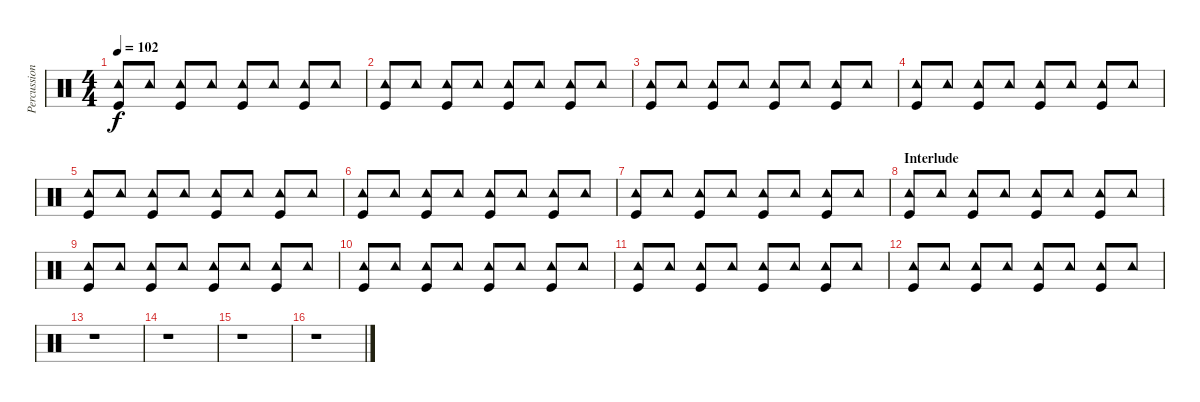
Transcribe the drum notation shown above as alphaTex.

\track ("Percussion" "Percussion") {instrument percussion}
\staff {score}
\articulation defaults
\ts (4 4)
\tempo 102
\clef neutral
\ks c
("Tambourine (hit)" "Kick (hit)").8{dy f} "Tambourine (hit)".8 ("Tambourine (hit)" "Kick (hit)").8 "Tambourine (hit)".8 ("Tambourine (hit)" "Kick (hit)").8 "Tambourine (hit)".8 ("Tambourine (hit)" "Kick (hit)").8 "Tambourine (hit)".8 |
("Tambourine (hit)" "Kick (hit)").8 "Tambourine (hit)".8 ("Tambourine (hit)" "Kick (hit)").8 "Tambourine (hit)".8 ("Tambourine (hit)" "Kick (hit)").8 "Tambourine (hit)".8 ("Tambourine (hit)" "Kick (hit)").8 "Tambourine (hit)".8 |
("Tambourine (hit)" "Kick (hit)").8 "Tambourine (hit)".8 ("Tambourine (hit)" "Kick (hit)").8 "Tambourine (hit)".8 ("Tambourine (hit)" "Kick (hit)").8 "Tambourine (hit)".8 ("Tambourine (hit)" "Kick (hit)").8 "Tambourine (hit)".8 |
("Tambourine (hit)" "Kick (hit)").8 "Tambourine (hit)".8 ("Tambourine (hit)" "Kick (hit)").8 "Tambourine (hit)".8 ("Tambourine (hit)" "Kick (hit)").8 "Tambourine (hit)".8 ("Tambourine (hit)" "Kick (hit)").8 "Tambourine (hit)".8 |
("Tambourine (hit)" "Kick (hit)").8 "Tambourine (hit)".8 ("Tambourine (hit)" "Kick (hit)").8 "Tambourine (hit)".8 ("Tambourine (hit)" "Kick (hit)").8 "Tambourine (hit)".8 ("Tambourine (hit)" "Kick (hit)").8 "Tambourine (hit)".8 |
("Tambourine (hit)" "Kick (hit)").8 "Tambourine (hit)".8 ("Tambourine (hit)" "Kick (hit)").8 "Tambourine (hit)".8 ("Tambourine (hit)" "Kick (hit)").8 "Tambourine (hit)".8 ("Tambourine (hit)" "Kick (hit)").8 "Tambourine (hit)".8 |
("Tambourine (hit)" "Kick (hit)").8 "Tambourine (hit)".8 ("Tambourine (hit)" "Kick (hit)").8 "Tambourine (hit)".8 ("Tambourine (hit)" "Kick (hit)").8 "Tambourine (hit)".8 ("Tambourine (hit)" "Kick (hit)").8 "Tambourine (hit)".8 |
\section ("" "Interlude")
("Tambourine (hit)" "Kick (hit)").8 "Tambourine (hit)".8 ("Tambourine (hit)" "Kick (hit)").8 "Tambourine (hit)".8 ("Tambourine (hit)" "Kick (hit)").8 "Tambourine (hit)".8 ("Tambourine (hit)" "Kick (hit)").8 "Tambourine (hit)".8 |
("Tambourine (hit)" "Kick (hit)").8 "Tambourine (hit)".8 ("Tambourine (hit)" "Kick (hit)").8 "Tambourine (hit)".8 ("Tambourine (hit)" "Kick (hit)").8 "Tambourine (hit)".8 ("Tambourine (hit)" "Kick (hit)").8 "Tambourine (hit)".8 |
("Tambourine (hit)" "Kick (hit)").8 "Tambourine (hit)".8 ("Tambourine (hit)" "Kick (hit)").8 "Tambourine (hit)".8 ("Tambourine (hit)" "Kick (hit)").8 "Tambourine (hit)".8 ("Tambourine (hit)" "Kick (hit)").8 "Tambourine (hit)".8 |
("Tambourine (hit)" "Kick (hit)").8 "Tambourine (hit)".8 ("Tambourine (hit)" "Kick (hit)").8 "Tambourine (hit)".8 ("Tambourine (hit)" "Kick (hit)").8 "Tambourine (hit)".8 ("Tambourine (hit)" "Kick (hit)").8 "Tambourine (hit)".8 |
("Tambourine (hit)" "Kick (hit)").8{volume 0} "Tambourine (hit)".8 ("Tambourine (hit)" "Kick (hit)").8 "Tambourine (hit)".8 ("Tambourine (hit)" "Kick (hit)").8 "Tambourine (hit)".8 ("Tambourine (hit)" "Kick (hit)").8 "Tambourine (hit)".8 |
r.1{volume 13} |
r.1 |
r.1 |
r.1
